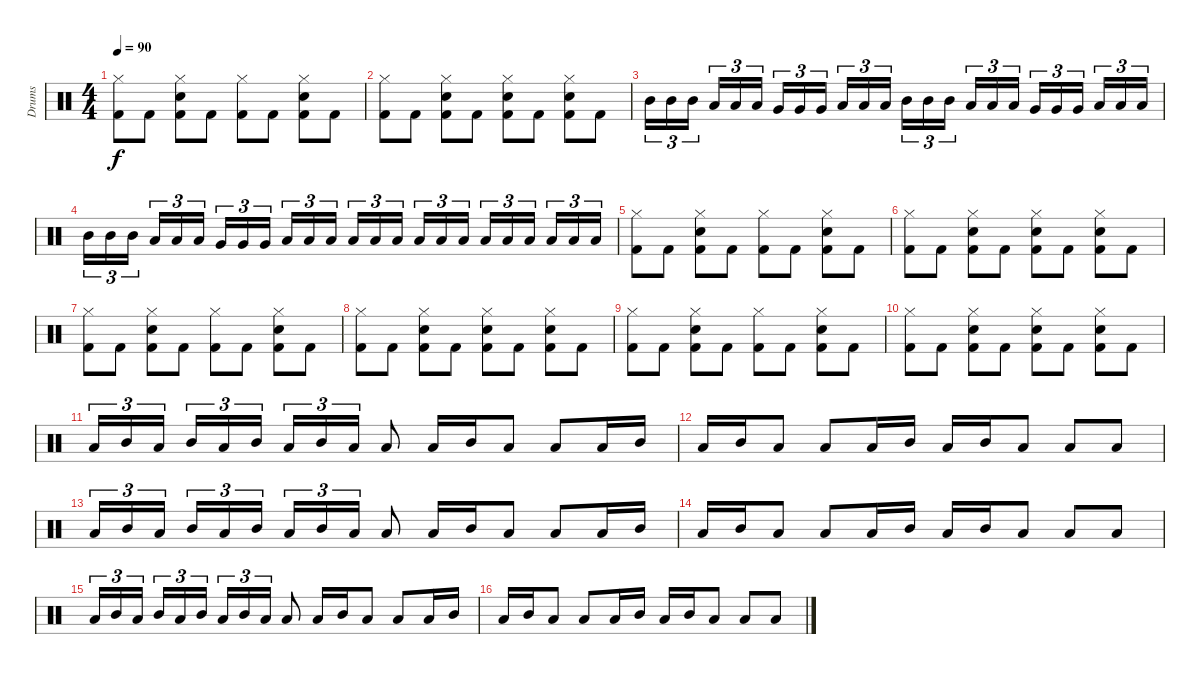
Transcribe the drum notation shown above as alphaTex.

\track ("Drums" "Drums") {instrument percussion}
\staff {score}
\articulation defaults
\ts (4 4)
\tempo 90
\clef neutral
\ks c
("Hi-Hat (closed)" "Kick (hit) 2").8{dy f} "Kick (hit) 2".8 ("Hi-Hat (closed)" "Kick (hit) 2" "Snare (hit) 2").8 "Kick (hit) 2".8 ("Hi-Hat (closed)" "Kick (hit) 2").8 "Kick (hit) 2".8 ("Hi-Hat (closed)" "Kick (hit) 2" "Snare (hit) 2").8 "Kick (hit) 2".8 |
("Hi-Hat (closed)" "Kick (hit) 2").8 "Kick (hit) 2".8 ("Hi-Hat (closed)" "Kick (hit) 2" "Snare (hit) 2").8 "Kick (hit) 2".8 ("Hi-Hat (closed)" "Kick (hit) 2" "Snare (hit) 2").8 "Kick (hit) 2".8 ("Hi-Hat (closed)" "Kick (hit) 2" "Snare (hit) 2").8 "Kick (hit) 2".8 |
"Mid Tom (hit)".16{tu (3 2)} "Mid Tom (hit)".16{tu (3 2)} "Mid Tom (hit)".16{tu (3 2) beam splitsecondary} "Low Tom (hit)".16{tu (3 2)} "Low Tom (hit)".16{tu (3 2)} "Low Tom (hit)".16{tu (3 2)} "Very Low Tom (hit)".16{tu (3 2)} "Very Low Tom (hit)".16{tu (3 2)} "Very Low Tom (hit)".16{tu (3 2) beam splitsecondary} "Low Floor Tom (hit)".16{tu (3 2)} "Low Floor Tom (hit)".16{tu (3 2)} "Low Floor Tom (hit)".16{tu (3 2)} "Mid Tom (hit)".16{tu (3 2)} "Mid Tom (hit)".16{tu (3 2)} "Mid Tom (hit)".16{tu (3 2) beam splitsecondary} "Low Tom (hit)".16{tu (3 2)} "Low Tom (hit)".16{tu (3 2)} "Low Tom (hit)".16{tu (3 2)} "Very Low Tom (hit)".16{tu (3 2)} "Very Low Tom (hit)".16{tu (3 2)} "Very Low Tom (hit)".16{tu (3 2) beam splitsecondary} "Low Floor Tom (hit)".16{tu (3 2)} "Low Floor Tom (hit)".16{tu (3 2)} "Low Floor Tom (hit)".16{tu (3 2)} |
"Mid Tom (hit)".16{tu (3 2)} "Mid Tom (hit)".16{tu (3 2)} "Mid Tom (hit)".16{tu (3 2) beam splitsecondary} "Low Tom (hit)".16{tu (3 2)} "Low Tom (hit)".16{tu (3 2)} "Low Tom (hit)".16{tu (3 2)} "Very Low Tom (hit)".16{tu (3 2)} "Very Low Tom (hit)".16{tu (3 2)} "Very Low Tom (hit)".16{tu (3 2) beam splitsecondary} "Low Floor Tom (hit)".16{tu (3 2)} "Low Floor Tom (hit)".16{tu (3 2)} "Low Floor Tom (hit)".16{tu (3 2)} "Low Floor Tom (hit)".16{tu (3 2)} "Low Floor Tom (hit)".16{tu (3 2)} "Low Floor Tom (hit)".16{tu (3 2) beam splitsecondary} "Low Floor Tom (hit)".16{tu (3 2)} "Low Floor Tom (hit)".16{tu (3 2)} "Low Floor Tom (hit)".16{tu (3 2)} "Low Floor Tom (hit)".16{tu (3 2)} "Low Floor Tom (hit)".16{tu (3 2)} "Low Floor Tom (hit)".16{tu (3 2) beam splitsecondary} "Low Floor Tom (hit)".16{tu (3 2)} "Low Floor Tom (hit)".16{tu (3 2)} "Low Floor Tom (hit)".16{tu (3 2)} |
("Hi-Hat (closed)" "Kick (hit) 2").8 "Kick (hit) 2".8 ("Hi-Hat (closed)" "Kick (hit) 2" "Snare (hit) 2").8 "Kick (hit) 2".8 ("Hi-Hat (closed)" "Kick (hit) 2").8 "Kick (hit) 2".8 ("Hi-Hat (closed)" "Kick (hit) 2" "Snare (hit) 2").8 "Kick (hit) 2".8 |
("Hi-Hat (closed)" "Kick (hit) 2").8 "Kick (hit) 2".8 ("Hi-Hat (closed)" "Kick (hit) 2" "Snare (hit) 2").8 "Kick (hit) 2".8 ("Hi-Hat (closed)" "Kick (hit) 2" "Snare (hit) 2").8 "Kick (hit) 2".8 ("Hi-Hat (closed)" "Kick (hit) 2" "Snare (hit) 2").8 "Kick (hit) 2".8 |
("Hi-Hat (closed)" "Kick (hit) 2").8 "Kick (hit) 2".8 ("Hi-Hat (closed)" "Kick (hit) 2" "Snare (hit) 2").8 "Kick (hit) 2".8 ("Hi-Hat (closed)" "Kick (hit) 2").8 "Kick (hit) 2".8 ("Hi-Hat (closed)" "Kick (hit) 2" "Snare (hit) 2").8 "Kick (hit) 2".8 |
("Hi-Hat (closed)" "Kick (hit) 2").8 "Kick (hit) 2".8 ("Hi-Hat (closed)" "Kick (hit) 2" "Snare (hit) 2").8 "Kick (hit) 2".8 ("Hi-Hat (closed)" "Kick (hit) 2" "Snare (hit) 2").8 "Kick (hit) 2".8 ("Hi-Hat (closed)" "Kick (hit) 2" "Snare (hit) 2").8 "Kick (hit) 2".8 |
("Hi-Hat (closed)" "Kick (hit) 2").8 "Kick (hit) 2".8 ("Hi-Hat (closed)" "Kick (hit) 2" "Snare (hit) 2").8 "Kick (hit) 2".8 ("Hi-Hat (closed)" "Kick (hit) 2").8 "Kick (hit) 2".8 ("Hi-Hat (closed)" "Kick (hit) 2" "Snare (hit) 2").8 "Kick (hit) 2".8 |
("Hi-Hat (closed)" "Kick (hit) 2").8 "Kick (hit) 2".8 ("Hi-Hat (closed)" "Kick (hit) 2" "Snare (hit) 2").8 "Kick (hit) 2".8 ("Hi-Hat (closed)" "Kick (hit) 2" "Snare (hit) 2").8 "Kick (hit) 2".8 ("Hi-Hat (closed)" "Kick (hit) 2" "Snare (hit) 2").8 "Kick (hit) 2".8 |
"Low Tom (hit)".16{tu (3 2)} "Mid Tom (hit)".16{tu (3 2)} "Low Tom (hit)".16{tu (3 2) beam splitsecondary} "Mid Tom (hit)".16{tu (3 2)} "Low Tom (hit)".16{tu (3 2)} "Mid Tom (hit)".16{tu (3 2)} "Low Tom (hit)".16{tu (3 2)} "Mid Tom (hit)".16{tu (3 2)} "Low Tom (hit)".16{tu (3 2)} "Low Tom (hit)".8 "Low Tom (hit)".16 "Mid Tom (hit)".16 "Low Tom (hit)".8 "Low Tom (hit)".8 "Low Tom (hit)".16 "Mid Tom (hit)".16 |
"Low Tom (hit)".16 "Mid Tom (hit)".16 "Low Tom (hit)".8 "Low Tom (hit)".8 "Low Tom (hit)".16 "Mid Tom (hit)".16 "Low Tom (hit)".16 "Mid Tom (hit)".16 "Low Tom (hit)".8 "Low Tom (hit)".8 "Low Tom (hit)".8 |
"Low Tom (hit)".16{tu (3 2)} "Mid Tom (hit)".16{tu (3 2)} "Low Tom (hit)".16{tu (3 2) beam splitsecondary} "Mid Tom (hit)".16{tu (3 2)} "Low Tom (hit)".16{tu (3 2)} "Mid Tom (hit)".16{tu (3 2)} "Low Tom (hit)".16{tu (3 2)} "Mid Tom (hit)".16{tu (3 2)} "Low Tom (hit)".16{tu (3 2)} "Low Tom (hit)".8 "Low Tom (hit)".16 "Mid Tom (hit)".16 "Low Tom (hit)".8 "Low Tom (hit)".8 "Low Tom (hit)".16 "Mid Tom (hit)".16 |
"Low Tom (hit)".16 "Mid Tom (hit)".16 "Low Tom (hit)".8 "Low Tom (hit)".8 "Low Tom (hit)".16 "Mid Tom (hit)".16 "Low Tom (hit)".16 "Mid Tom (hit)".16 "Low Tom (hit)".8 "Low Tom (hit)".8 "Low Tom (hit)".8 |
"Low Tom (hit)".16{tu (3 2)} "Mid Tom (hit)".16{tu (3 2)} "Low Tom (hit)".16{tu (3 2) beam splitsecondary} "Mid Tom (hit)".16{tu (3 2)} "Low Tom (hit)".16{tu (3 2)} "Mid Tom (hit)".16{tu (3 2)} "Low Tom (hit)".16{tu (3 2)} "Mid Tom (hit)".16{tu (3 2)} "Low Tom (hit)".16{tu (3 2)} "Low Tom (hit)".8 "Low Tom (hit)".16 "Mid Tom (hit)".16 "Low Tom (hit)".8 "Low Tom (hit)".8 "Low Tom (hit)".16 "Mid Tom (hit)".16 |
"Low Tom (hit)".16 "Mid Tom (hit)".16 "Low Tom (hit)".8 "Low Tom (hit)".8 "Low Tom (hit)".16 "Mid Tom (hit)".16 "Low Tom (hit)".16 "Mid Tom (hit)".16 "Low Tom (hit)".8 "Low Tom (hit)".8 "Low Tom (hit)".8
